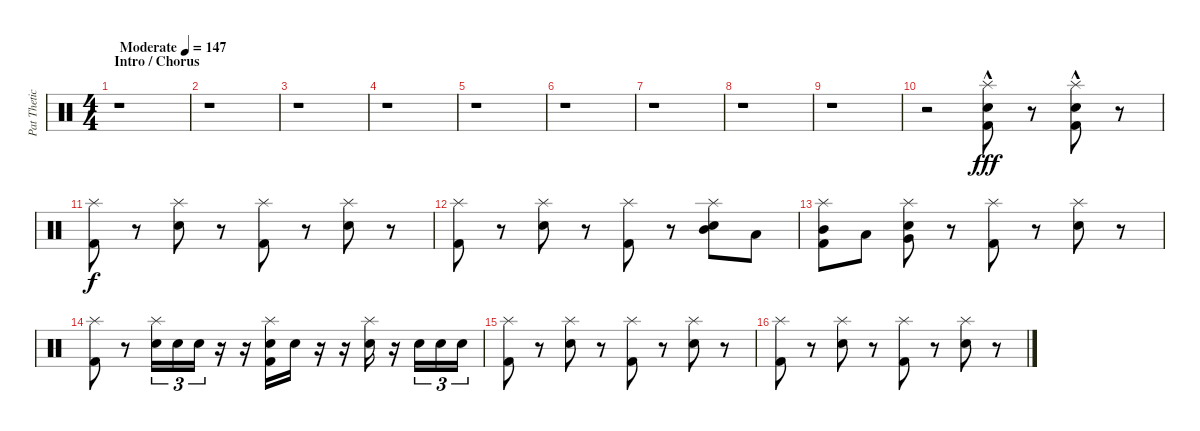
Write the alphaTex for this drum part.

\track ("Pat Thetic Drums" "Pat Thetic") {instrument percussion}
\staff {score}
\articulation defaults
\ts (4 4)
\section ("" "Intro / Chorus")
\tempo (147 "Moderate")
\clef neutral
\ks c
r.1{dy fff} |
r.1 |
r.1 |
r.1 |
r.1 |
r.1 |
r.1 |
r.1 |
r.1 |
r.2 ("Splash (hit)" "Kick (hit) 2" "Snare (hit) 2"{hac}).8 r.8 ("Splash (hit)" "Kick (hit) 2" "Snare (hit) 2"{hac}).8 r.8 |
("Splash (hit)" "Kick (hit) 2").8{dy f} r.8 ("Splash (hit)" "Snare (hit) 2").8 r.8 ("Splash (hit)" "Kick (hit) 2").8 r.8 ("Splash (hit)" "Snare (hit) 2").8 r.8 |
("Splash (hit)" "Kick (hit) 2").8 r.8 ("Splash (hit)" "Snare (hit) 2").8 r.8 ("Splash (hit)" "Kick (hit) 2").8 r.8 ("Splash (hit)" "Snare (hit) 2" "Mid Tom (hit)").8 "Low Floor Tom (hit)".8 |
("Splash (hit)" "Kick (hit) 2" "Mid Tom (hit)").8 "Low Floor Tom (hit)".8 ("Splash (hit)" "Snare (hit) 2" "Very Low Tom (hit)").8 r.8 ("Splash (hit)" "Kick (hit) 2").8 r.8 ("Splash (hit)" "Snare (hit) 2").8 r.8 |
("Splash (hit)" "Kick (hit) 2").8 r.8 ("Splash (hit)" "Snare (hit) 2").16{tu (3 2)} "Snare (hit) 2".16{tu (3 2)} "Snare (hit) 2".16{tu (3 2)} r.16 r.16 ("Splash (hit)" "Kick (hit) 2" "Snare (hit) 2").16 "Snare (hit) 2".16 r.16 r.16 ("Splash (hit)" "Snare (hit) 2").16 r.16 "Snare (hit) 2".16{tu (3 2)} "Snare (hit) 2".16{tu (3 2)} "Snare (hit) 2".16{tu (3 2)} |
("Splash (hit)" "Kick (hit) 2").8 r.8 ("Splash (hit)" "Snare (hit) 2").8 r.8 ("Splash (hit)" "Kick (hit) 2").8 r.8 ("Splash (hit)" "Snare (hit) 2").8 r.8 |
("Splash (hit)" "Kick (hit) 2").8 r.8 ("Splash (hit)" "Snare (hit) 2").8 r.8 ("Splash (hit)" "Kick (hit) 2").8 r.8 ("Splash (hit)" "Snare (hit) 2").8 r.8
